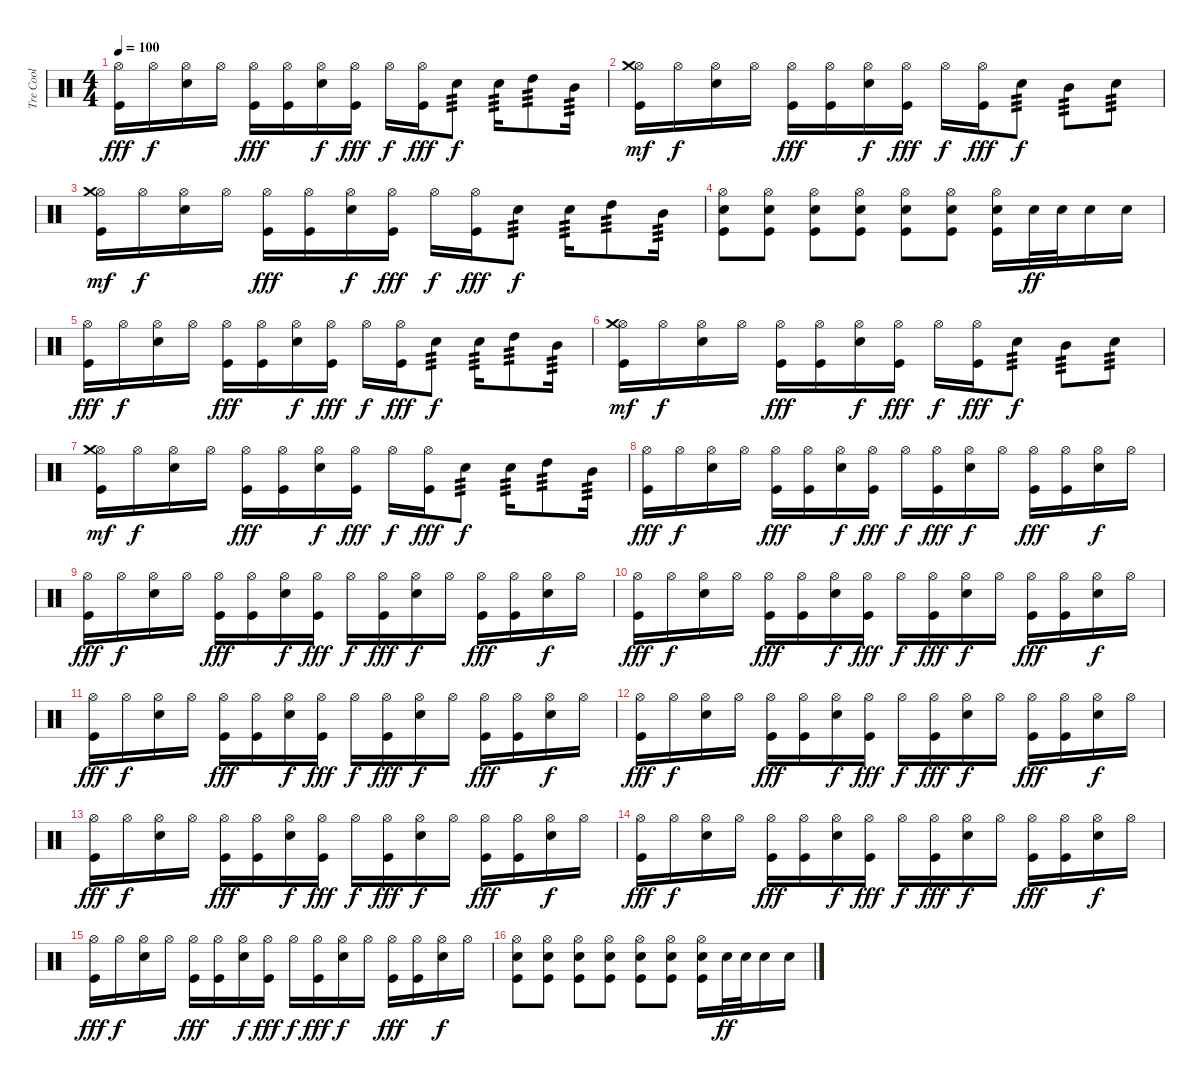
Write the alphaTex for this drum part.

\track ("Tre Cool" "Tre Cool") {instrument percussion}
\staff {score}
\articulation defaults
\ts (4 4)
\tempo 100
\clef neutral
\ks c
("Hi-Hat (open)" "Kick (hit)").16{dy fff} "Hi-Hat (open)".16{dy f} ("Hi-Hat (open)" "Snare (hit) 2").16 "Hi-Hat (open)".16 ("Hi-Hat (open)" "Kick (hit)").16{dy fff} ("Hi-Hat (open)" "Kick (hit)").16 ("Hi-Hat (open)" "Snare (hit) 2").16{dy f} ("Hi-Hat (open)" "Kick (hit)").16{dy fff} "Hi-Hat (open)".16{dy f} ("Hi-Hat (open)" "Kick (hit)").16{dy fff} "Snare (hit) 2".8{tp 3 dy f} "Snare (hit) 2".16{tp 3} "High Tom (hit)".8{tp 3} "Mid Tom (hit)".16{tp 3} |
("Hi-Hat (open)" "Kick (hit)" "Crash medium (hit)").16{dy mf} "Hi-Hat (open)".16{dy f} ("Hi-Hat (open)" "Snare (hit) 2").16 "Hi-Hat (open)".16 ("Hi-Hat (open)" "Kick (hit)").16{dy fff} ("Hi-Hat (open)" "Kick (hit)").16 ("Hi-Hat (open)" "Snare (hit) 2").16{dy f} ("Hi-Hat (open)" "Kick (hit)").16{dy fff} "Hi-Hat (open)".16{dy f} ("Hi-Hat (open)" "Kick (hit)").16{dy fff} "Snare (hit) 2".8{tp 3 dy f} "Mid Tom (hit)".8{tp 3} "Snare (hit) 2".8{tp 3} |
("Hi-Hat (open)" "Kick (hit)" "Crash medium (hit)").16{dy mf} "Hi-Hat (open)".16{dy f} ("Hi-Hat (open)" "Snare (hit) 2").16 "Hi-Hat (open)".16 ("Hi-Hat (open)" "Kick (hit)").16{dy fff} ("Hi-Hat (open)" "Kick (hit)").16 ("Hi-Hat (open)" "Snare (hit) 2").16{dy f} ("Hi-Hat (open)" "Kick (hit)").16{dy fff} "Hi-Hat (open)".16{dy f} ("Hi-Hat (open)" "Kick (hit)").16{dy fff} "Snare (hit) 2".8{tp 3 dy f} "Snare (hit) 2".16{tp 3} "High Tom (hit)".8{tp 3} "Mid Tom (hit)".16{tp 3} |
("Hi-Hat (open)" "Snare (hit) 2" "Kick (hit)").8 ("Hi-Hat (open)" "Snare (hit) 2" "Kick (hit)").8 ("Hi-Hat (open)" "Snare (hit) 2" "Kick (hit)").8 ("Hi-Hat (open)" "Snare (hit) 2" "Kick (hit)").8 ("Hi-Hat (open)" "Snare (hit) 2" "Kick (hit)").8 ("Hi-Hat (open)" "Snare (hit) 2" "Kick (hit)").8 ("Hi-Hat (open)" "Snare (hit) 2" "Kick (hit)").16 "Snare (hit) 2".32{dy ff} "Snare (hit) 2".32 "Snare (hit) 2".16 "Snare (hit) 2".16 |
("Hi-Hat (open)" "Kick (hit)").16{dy fff} "Hi-Hat (open)".16{dy f} ("Hi-Hat (open)" "Snare (hit) 2").16 "Hi-Hat (open)".16 ("Hi-Hat (open)" "Kick (hit)").16{dy fff} ("Hi-Hat (open)" "Kick (hit)").16 ("Hi-Hat (open)" "Snare (hit) 2").16{dy f} ("Hi-Hat (open)" "Kick (hit)").16{dy fff} "Hi-Hat (open)".16{dy f} ("Hi-Hat (open)" "Kick (hit)").16{dy fff} "Snare (hit) 2".8{tp 3 dy f} "Snare (hit) 2".16{tp 3} "High Tom (hit)".8{tp 3} "Mid Tom (hit)".16{tp 3} |
("Hi-Hat (open)" "Kick (hit)" "Crash medium (hit)").16{dy mf} "Hi-Hat (open)".16{dy f} ("Hi-Hat (open)" "Snare (hit) 2").16 "Hi-Hat (open)".16 ("Hi-Hat (open)" "Kick (hit)").16{dy fff} ("Hi-Hat (open)" "Kick (hit)").16 ("Hi-Hat (open)" "Snare (hit) 2").16{dy f} ("Hi-Hat (open)" "Kick (hit)").16{dy fff} "Hi-Hat (open)".16{dy f} ("Hi-Hat (open)" "Kick (hit)").16{dy fff} "Snare (hit) 2".8{tp 3 dy f} "Mid Tom (hit)".8{tp 3} "Snare (hit) 2".8{tp 3} |
("Hi-Hat (open)" "Kick (hit)" "Crash medium (hit)").16{dy mf} "Hi-Hat (open)".16{dy f} ("Hi-Hat (open)" "Snare (hit) 2").16 "Hi-Hat (open)".16 ("Hi-Hat (open)" "Kick (hit)").16{dy fff} ("Hi-Hat (open)" "Kick (hit)").16 ("Hi-Hat (open)" "Snare (hit) 2").16{dy f} ("Hi-Hat (open)" "Kick (hit)").16{dy fff} "Hi-Hat (open)".16{dy f} ("Hi-Hat (open)" "Kick (hit)").16{dy fff} "Snare (hit) 2".8{tp 3 dy f} "Snare (hit) 2".16{tp 3} "High Tom (hit)".8{tp 3} "Mid Tom (hit)".16{tp 3} |
("Hi-Hat (open)" "Kick (hit)").16{dy fff} "Hi-Hat (open)".16{dy f} ("Hi-Hat (open)" "Snare (hit) 2").16 "Hi-Hat (open)".16 ("Hi-Hat (open)" "Kick (hit)").16{dy fff} ("Hi-Hat (open)" "Kick (hit)").16 ("Hi-Hat (open)" "Snare (hit) 2").16{dy f} ("Hi-Hat (open)" "Kick (hit)").16{dy fff} "Hi-Hat (open)".16{dy f} ("Hi-Hat (open)" "Kick (hit)").16{dy fff} ("Hi-Hat (open)" "Snare (hit) 2").16{dy f} "Hi-Hat (open)".16 ("Hi-Hat (open)" "Kick (hit)").16{dy fff} ("Hi-Hat (open)" "Kick (hit)").16 ("Hi-Hat (open)" "Snare (hit) 2").16{dy f} "Hi-Hat (open)".16 |
("Hi-Hat (open)" "Kick (hit)").16{dy fff} "Hi-Hat (open)".16{dy f} ("Hi-Hat (open)" "Snare (hit) 2").16 "Hi-Hat (open)".16 ("Hi-Hat (open)" "Kick (hit)").16{dy fff} ("Hi-Hat (open)" "Kick (hit)").16 ("Hi-Hat (open)" "Snare (hit) 2").16{dy f} ("Hi-Hat (open)" "Kick (hit)").16{dy fff} "Hi-Hat (open)".16{dy f} ("Hi-Hat (open)" "Kick (hit)").16{dy fff} ("Hi-Hat (open)" "Snare (hit) 2").16{dy f} "Hi-Hat (open)".16 ("Hi-Hat (open)" "Kick (hit)").16{dy fff} ("Hi-Hat (open)" "Kick (hit)").16 ("Hi-Hat (open)" "Snare (hit) 2").16{dy f} "Hi-Hat (open)".16 |
("Hi-Hat (open)" "Kick (hit)").16{dy fff} "Hi-Hat (open)".16{dy f} ("Hi-Hat (open)" "Snare (hit) 2").16 "Hi-Hat (open)".16 ("Hi-Hat (open)" "Kick (hit)").16{dy fff} ("Hi-Hat (open)" "Kick (hit)").16 ("Hi-Hat (open)" "Snare (hit) 2").16{dy f} ("Hi-Hat (open)" "Kick (hit)").16{dy fff} "Hi-Hat (open)".16{dy f} ("Hi-Hat (open)" "Kick (hit)").16{dy fff} ("Hi-Hat (open)" "Snare (hit) 2").16{dy f} "Hi-Hat (open)".16 ("Hi-Hat (open)" "Kick (hit)").16{dy fff} ("Hi-Hat (open)" "Kick (hit)").16 ("Hi-Hat (open)" "Snare (hit) 2").16{dy f} "Hi-Hat (open)".16 |
("Hi-Hat (open)" "Kick (hit)").16{dy fff} "Hi-Hat (open)".16{dy f} ("Hi-Hat (open)" "Snare (hit) 2").16 "Hi-Hat (open)".16 ("Hi-Hat (open)" "Kick (hit)").16{dy fff} ("Hi-Hat (open)" "Kick (hit)").16 ("Hi-Hat (open)" "Snare (hit) 2").16{dy f} ("Hi-Hat (open)" "Kick (hit)").16{dy fff} "Hi-Hat (open)".16{dy f} ("Hi-Hat (open)" "Kick (hit)").16{dy fff} ("Hi-Hat (open)" "Snare (hit) 2").16{dy f} "Hi-Hat (open)".16 ("Hi-Hat (open)" "Kick (hit)").16{dy fff} ("Hi-Hat (open)" "Kick (hit)").16 ("Hi-Hat (open)" "Snare (hit) 2").16{dy f} "Hi-Hat (open)".16 |
("Hi-Hat (open)" "Kick (hit)").16{dy fff} "Hi-Hat (open)".16{dy f} ("Hi-Hat (open)" "Snare (hit) 2").16 "Hi-Hat (open)".16 ("Hi-Hat (open)" "Kick (hit)").16{dy fff} ("Hi-Hat (open)" "Kick (hit)").16 ("Hi-Hat (open)" "Snare (hit) 2").16{dy f} ("Hi-Hat (open)" "Kick (hit)").16{dy fff} "Hi-Hat (open)".16{dy f} ("Hi-Hat (open)" "Kick (hit)").16{dy fff} ("Hi-Hat (open)" "Snare (hit) 2").16{dy f} "Hi-Hat (open)".16 ("Hi-Hat (open)" "Kick (hit)").16{dy fff} ("Hi-Hat (open)" "Kick (hit)").16 ("Hi-Hat (open)" "Snare (hit) 2").16{dy f} "Hi-Hat (open)".16 |
("Hi-Hat (open)" "Kick (hit)").16{dy fff} "Hi-Hat (open)".16{dy f} ("Hi-Hat (open)" "Snare (hit) 2").16 "Hi-Hat (open)".16 ("Hi-Hat (open)" "Kick (hit)").16{dy fff} ("Hi-Hat (open)" "Kick (hit)").16 ("Hi-Hat (open)" "Snare (hit) 2").16{dy f} ("Hi-Hat (open)" "Kick (hit)").16{dy fff} "Hi-Hat (open)".16{dy f} ("Hi-Hat (open)" "Kick (hit)").16{dy fff} ("Hi-Hat (open)" "Snare (hit) 2").16{dy f} "Hi-Hat (open)".16 ("Hi-Hat (open)" "Kick (hit)").16{dy fff} ("Hi-Hat (open)" "Kick (hit)").16 ("Hi-Hat (open)" "Snare (hit) 2").16{dy f} "Hi-Hat (open)".16 |
("Hi-Hat (open)" "Kick (hit)").16{dy fff} "Hi-Hat (open)".16{dy f} ("Hi-Hat (open)" "Snare (hit) 2").16 "Hi-Hat (open)".16 ("Hi-Hat (open)" "Kick (hit)").16{dy fff} ("Hi-Hat (open)" "Kick (hit)").16 ("Hi-Hat (open)" "Snare (hit) 2").16{dy f} ("Hi-Hat (open)" "Kick (hit)").16{dy fff} "Hi-Hat (open)".16{dy f} ("Hi-Hat (open)" "Kick (hit)").16{dy fff} ("Hi-Hat (open)" "Snare (hit) 2").16{dy f} "Hi-Hat (open)".16 ("Hi-Hat (open)" "Kick (hit)").16{dy fff} ("Hi-Hat (open)" "Kick (hit)").16 ("Hi-Hat (open)" "Snare (hit) 2").16{dy f} "Hi-Hat (open)".16 |
("Hi-Hat (open)" "Kick (hit)").16{dy fff} "Hi-Hat (open)".16{dy f} ("Hi-Hat (open)" "Snare (hit) 2").16 "Hi-Hat (open)".16 ("Hi-Hat (open)" "Kick (hit)").16{dy fff} ("Hi-Hat (open)" "Kick (hit)").16 ("Hi-Hat (open)" "Snare (hit) 2").16{dy f} ("Hi-Hat (open)" "Kick (hit)").16{dy fff} "Hi-Hat (open)".16{dy f} ("Hi-Hat (open)" "Kick (hit)").16{dy fff} ("Hi-Hat (open)" "Snare (hit) 2").16{dy f} "Hi-Hat (open)".16 ("Hi-Hat (open)" "Kick (hit)").16{dy fff} ("Hi-Hat (open)" "Kick (hit)").16 ("Hi-Hat (open)" "Snare (hit) 2").16{dy f} "Hi-Hat (open)".16 |
("Hi-Hat (open)" "Snare (hit) 2" "Kick (hit)").8 ("Hi-Hat (open)" "Snare (hit) 2" "Kick (hit)").8 ("Hi-Hat (open)" "Snare (hit) 2" "Kick (hit)").8 ("Hi-Hat (open)" "Snare (hit) 2" "Kick (hit)").8 ("Hi-Hat (open)" "Snare (hit) 2" "Kick (hit)").8 ("Hi-Hat (open)" "Snare (hit) 2" "Kick (hit)").8 ("Hi-Hat (open)" "Snare (hit) 2" "Kick (hit)").16 "Snare (hit) 2".32{dy ff} "Snare (hit) 2".32 "Snare (hit) 2".16 "Snare (hit) 2".16
